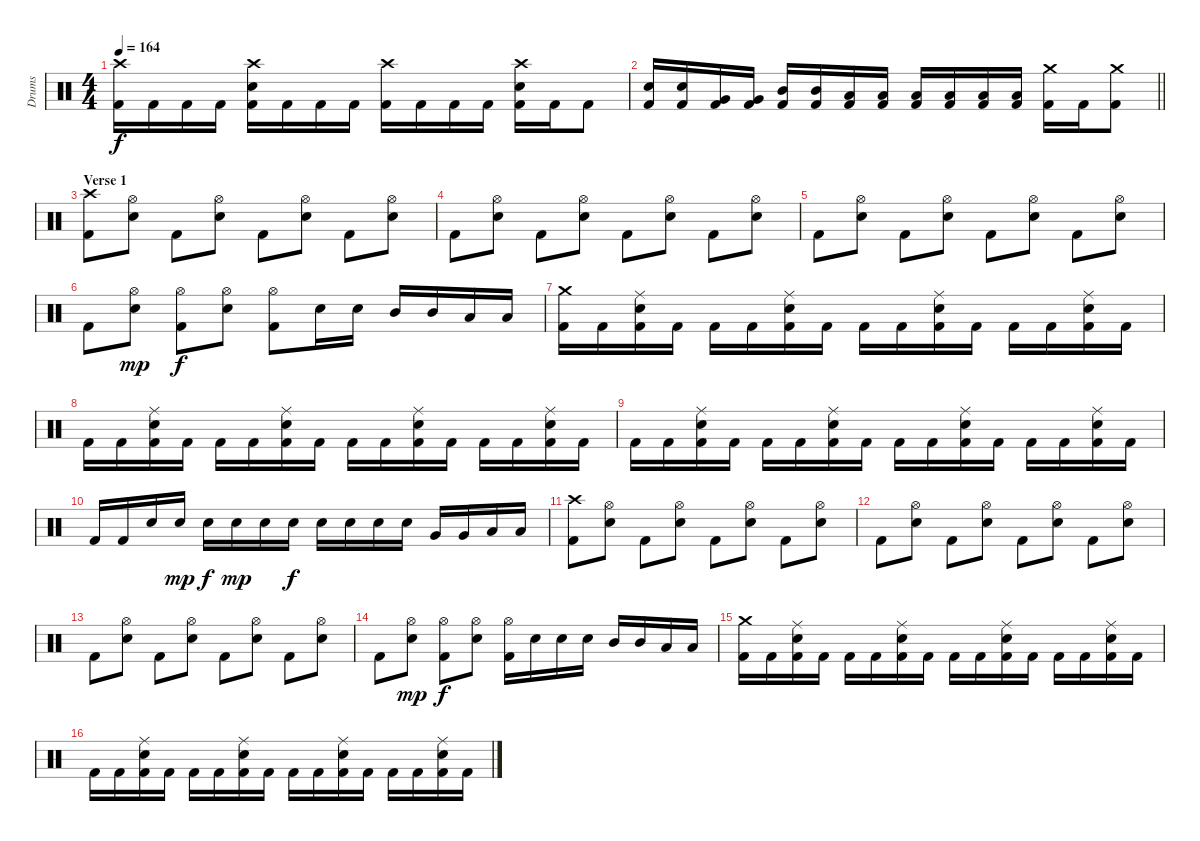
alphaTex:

\track ("Drums" "Drums") {instrument percussion}
\staff {score}
\articulation defaults
\ts (4 4)
\tempo 164
\clef neutral
\ks c
("Crash high (hit)" "Kick (hit) 2").16{dy f} "Kick (hit) 2".16 "Kick (hit) 2".16 "Kick (hit) 2".16 ("Crash high (hit)" "Electric Snare (hit)" "Kick (hit) 2").16 "Kick (hit) 2".16 "Kick (hit) 2".16 "Kick (hit) 2".16 ("Crash high (hit)" "Kick (hit) 2").16 "Kick (hit) 2".16 "Kick (hit) 2".16 "Kick (hit) 2".16 ("Crash high (hit)" "Electric Snare (hit)" "Kick (hit) 2").16 "Kick (hit) 2".16 "Kick (hit) 2".8 |
\barLineRight lightlight
("Electric Snare (hit)" "Kick (hit) 2").16 ("Electric Snare (hit)" "Kick (hit) 2").16 ("Very Low Tom (hit)" "Kick (hit) 2").16 ("Very Low Tom (hit)" "Kick (hit) 2").16 ("Mid Tom (hit)" "Kick (hit) 2").16 ("Mid Tom (hit)" "Kick (hit) 2").16 ("Low Tom (hit)" "Kick (hit) 2").16 ("Low Tom (hit)" "Kick (hit) 2").16 ("Low Floor Tom (hit)" "Kick (hit) 2").16 ("Low Floor Tom (hit)" "Kick (hit) 2").16 ("Low Tom (hit)" "Kick (hit) 2").16 ("Low Tom (hit)" "Kick (hit) 2").16 ("Crash medium (hit)" "Kick (hit) 2").16 "Kick (hit) 2".16 ("Crash medium (hit)" "Kick (hit) 2").8 |
\section ("" "Verse 1")
("Crash high (hit)" "Kick (hit) 2").8 ("Hi-Hat (open)" "Electric Snare (hit)").8 "Kick (hit) 2".8 ("Hi-Hat (open)" "Electric Snare (hit)").8 "Kick (hit) 2".8 ("Hi-Hat (open)" "Electric Snare (hit)").8 "Kick (hit) 2".8 ("Hi-Hat (open)" "Electric Snare (hit)").8 |
"Kick (hit) 2".8 ("Hi-Hat (open)" "Electric Snare (hit)").8 "Kick (hit) 2".8 ("Hi-Hat (open)" "Electric Snare (hit)").8 "Kick (hit) 2".8 ("Hi-Hat (open)" "Electric Snare (hit)").8 "Kick (hit) 2".8 ("Hi-Hat (open)" "Electric Snare (hit)").8 |
"Kick (hit) 2".8 ("Hi-Hat (open)" "Electric Snare (hit)").8 "Kick (hit) 2".8 ("Hi-Hat (open)" "Electric Snare (hit)").8 "Kick (hit) 2".8 ("Hi-Hat (open)" "Electric Snare (hit)").8 "Kick (hit) 2".8 ("Hi-Hat (open)" "Electric Snare (hit)").8 |
"Kick (hit) 2".8 ("Hi-Hat (open)" "Electric Snare (hit)").8{dy mp} ("Hi-Hat (open)" "Kick (hit) 2").8{dy f} ("Hi-Hat (open)" "Electric Snare (hit)").8 ("Hi-Hat (open)" "Kick (hit) 2").8 "Electric Snare (hit)".16 "Electric Snare (hit)".16 "Mid Tom (hit)".16 "Mid Tom (hit)".16 "Low Tom (hit)".16 "Low Tom (hit)".16 |
("Crash medium (hit)" "Kick (hit) 2").16 "Kick (hit) 2".16 ("Ride (middle)" "Electric Snare (hit)" "Kick (hit) 2").16 "Kick (hit) 2".16 "Kick (hit) 2".16 "Kick (hit) 2".16 ("Ride (middle)" "Electric Snare (hit)" "Kick (hit) 2").16 "Kick (hit) 2".16 "Kick (hit) 2".16 "Kick (hit) 2".16 ("Ride (middle)" "Electric Snare (hit)" "Kick (hit) 2").16 "Kick (hit) 2".16 "Kick (hit) 2".16 "Kick (hit) 2".16 ("Ride (middle)" "Electric Snare (hit)" "Kick (hit) 2").16 "Kick (hit) 2".16 |
"Kick (hit) 2".16 "Kick (hit) 2".16 ("Ride (middle)" "Electric Snare (hit)" "Kick (hit) 2").16 "Kick (hit) 2".16 "Kick (hit) 2".16 "Kick (hit) 2".16 ("Ride (middle)" "Electric Snare (hit)" "Kick (hit) 2").16 "Kick (hit) 2".16 "Kick (hit) 2".16 "Kick (hit) 2".16 ("Ride (middle)" "Electric Snare (hit)" "Kick (hit) 2").16 "Kick (hit) 2".16 "Kick (hit) 2".16 "Kick (hit) 2".16 ("Ride (middle)" "Electric Snare (hit)" "Kick (hit) 2").16 "Kick (hit) 2".16 |
"Kick (hit) 2".16 "Kick (hit) 2".16 ("Ride (middle)" "Electric Snare (hit)" "Kick (hit) 2").16 "Kick (hit) 2".16 "Kick (hit) 2".16 "Kick (hit) 2".16 ("Ride (middle)" "Electric Snare (hit)" "Kick (hit) 2").16 "Kick (hit) 2".16 "Kick (hit) 2".16 "Kick (hit) 2".16 ("Ride (middle)" "Electric Snare (hit)" "Kick (hit) 2").16 "Kick (hit) 2".16 "Kick (hit) 2".16 "Kick (hit) 2".16 ("Ride (middle)" "Electric Snare (hit)" "Kick (hit) 2").16 "Kick (hit) 2".16 |
"Kick (hit) 2".16 "Kick (hit) 2".16 "Electric Snare (hit)".16 "Electric Snare (hit)".16{dy mp} "Electric Snare (hit)".16{dy f} "Electric Snare (hit)".16{dy mp} "Electric Snare (hit)".16 "Electric Snare (hit)".16{dy f} "Electric Snare (hit)".16 "Electric Snare (hit)".16 "Electric Snare (hit)".16 "Electric Snare (hit)".16 "Very Low Tom (hit)".16 "Very Low Tom (hit)".16 "Low Floor Tom (hit)".16 "Low Floor Tom (hit)".16 |
("Crash high (hit)" "Kick (hit) 2").8 ("Hi-Hat (open)" "Electric Snare (hit)").8 "Kick (hit) 2".8 ("Hi-Hat (open)" "Electric Snare (hit)").8 "Kick (hit) 2".8 ("Hi-Hat (open)" "Electric Snare (hit)").8 "Kick (hit) 2".8 ("Hi-Hat (open)" "Electric Snare (hit)").8 |
"Kick (hit) 2".8 ("Hi-Hat (open)" "Electric Snare (hit)").8 "Kick (hit) 2".8 ("Hi-Hat (open)" "Electric Snare (hit)").8 "Kick (hit) 2".8 ("Hi-Hat (open)" "Electric Snare (hit)").8 "Kick (hit) 2".8 ("Hi-Hat (open)" "Electric Snare (hit)").8 |
"Kick (hit) 2".8 ("Hi-Hat (open)" "Electric Snare (hit)").8 "Kick (hit) 2".8 ("Hi-Hat (open)" "Electric Snare (hit)").8 "Kick (hit) 2".8 ("Hi-Hat (open)" "Electric Snare (hit)").8 "Kick (hit) 2".8 ("Hi-Hat (open)" "Electric Snare (hit)").8 |
"Kick (hit) 2".8 ("Hi-Hat (open)" "Electric Snare (hit)").8{dy mp} ("Hi-Hat (open)" "Kick (hit) 2").8{dy f} ("Hi-Hat (open)" "Electric Snare (hit)").8 ("Hi-Hat (open)" "Kick (hit) 2").16 "Electric Snare (hit)".16 "Electric Snare (hit)".16 "Electric Snare (hit)".16 "Mid Tom (hit)".16 "Mid Tom (hit)".16 "Low Tom (hit)".16 "Low Tom (hit)".16 |
("Crash medium (hit)" "Kick (hit) 2").16 "Kick (hit) 2".16 ("Ride (middle)" "Electric Snare (hit)" "Kick (hit) 2").16 "Kick (hit) 2".16 "Kick (hit) 2".16 "Kick (hit) 2".16 ("Ride (middle)" "Electric Snare (hit)" "Kick (hit) 2").16 "Kick (hit) 2".16 "Kick (hit) 2".16 "Kick (hit) 2".16 ("Ride (middle)" "Electric Snare (hit)" "Kick (hit) 2").16 "Kick (hit) 2".16 "Kick (hit) 2".16 "Kick (hit) 2".16 ("Ride (middle)" "Electric Snare (hit)" "Kick (hit) 2").16 "Kick (hit) 2".16 |
"Kick (hit) 2".16 "Kick (hit) 2".16 ("Ride (middle)" "Electric Snare (hit)" "Kick (hit) 2").16 "Kick (hit) 2".16 "Kick (hit) 2".16 "Kick (hit) 2".16 ("Ride (middle)" "Electric Snare (hit)" "Kick (hit) 2").16 "Kick (hit) 2".16 "Kick (hit) 2".16 "Kick (hit) 2".16 ("Ride (middle)" "Electric Snare (hit)" "Kick (hit) 2").16 "Kick (hit) 2".16 "Kick (hit) 2".16 "Kick (hit) 2".16 ("Ride (middle)" "Electric Snare (hit)" "Kick (hit) 2").16 "Kick (hit) 2".16
